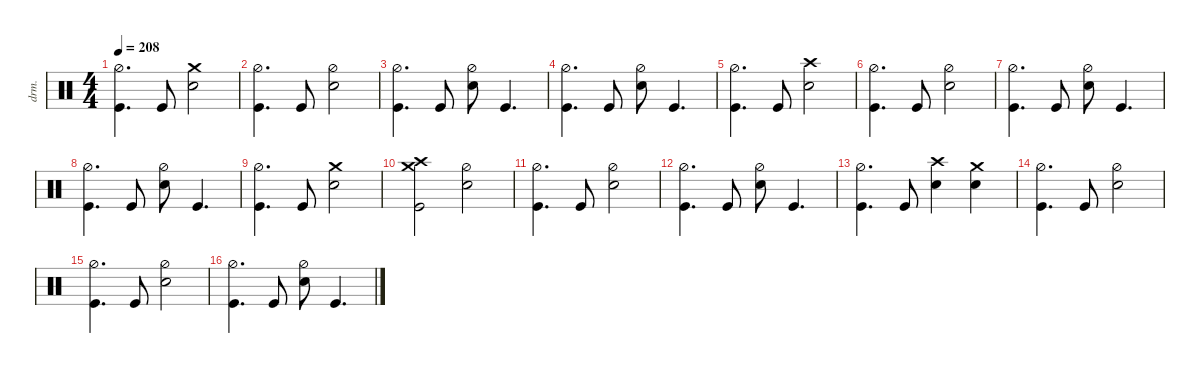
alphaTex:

\defaultSystemsLayout 4
\hideDynamics
\bracketExtendMode nobrackets
\otherSystemsTrackNameOrientation horizontal
\track ("Drums" "drm.") {multiBarRest instrument percussion}
\staff
\articulation defaults
\ts (4 4)
\tempo 208
\clef neutral
\ks c
("Kick (hit)" "Hi-Hat (half)").4{d dy f} "Kick (hit)".8 ("Snare (hit) 2" "Crash medium (hit)").2 |
("Kick (hit)" "Hi-Hat (half)").4{d} "Kick (hit)".8 ("Snare (hit) 2" "Hi-Hat (half)").2 |
("Kick (hit)" "Hi-Hat (half)").4{d} "Kick (hit)".8 ("Snare (hit) 2" "Hi-Hat (half)").8 "Kick (hit)".4{d} |
("Kick (hit)" "Hi-Hat (half)").4{d} "Kick (hit)".8 ("Snare (hit) 2" "Hi-Hat (half)").8 "Kick (hit)".4{d} |
("Kick (hit)" "Hi-Hat (half)").4{d} "Kick (hit)".8 ("Snare (hit) 2" "Crash high (hit)").2 |
("Kick (hit)" "Hi-Hat (half)").4{d} "Kick (hit)".8 ("Snare (hit) 2" "Hi-Hat (half)").2 |
("Kick (hit)" "Hi-Hat (half)").4{d} "Kick (hit)".8 ("Snare (hit) 2" "Hi-Hat (half)").8 "Kick (hit)".4{d} |
("Kick (hit)" "Hi-Hat (half)").4{d} "Kick (hit)".8 ("Snare (hit) 2" "Hi-Hat (half)").8 "Kick (hit)".4{d} |
("Kick (hit)" "Hi-Hat (half)").4{d} "Kick (hit)".8 ("Snare (hit) 2" "Crash medium (hit)").2 |
("Crash high (hit)" "Crash medium (hit)" "Kick (hit)").2 ("Hi-Hat (half)" "Snare (hit) 2").2 |
("Kick (hit)" "Hi-Hat (half)").4{d} "Kick (hit)".8 ("Snare (hit) 2" "Hi-Hat (half)").2 |
("Kick (hit)" "Hi-Hat (half)").4{d} "Kick (hit)".8 ("Snare (hit) 2" "Hi-Hat (half)").8 "Kick (hit)".4{d} |
("Kick (hit)" "Hi-Hat (half)").4{d} "Kick (hit)".8 ("Snare (hit) 2" "Crash high (hit)").4 ("Snare (hit) 2" "Crash medium (hit)").4 |
("Kick (hit)" "Hi-Hat (half)").4{d} "Kick (hit)".8 ("Snare (hit) 2" "Hi-Hat (half)").2 |
("Kick (hit)" "Hi-Hat (half)").4{d} "Kick (hit)".8 ("Snare (hit) 2" "Hi-Hat (half)").2 |
("Kick (hit)" "Hi-Hat (half)").4{d} "Kick (hit)".8 ("Snare (hit) 2" "Hi-Hat (half)").8 "Kick (hit)".4{d}
